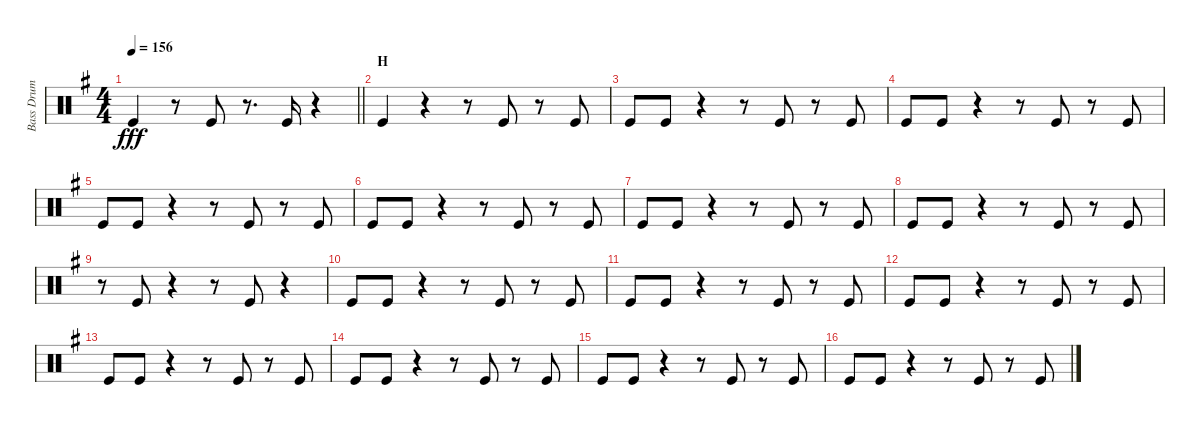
\track ("Bass Drum" "Bass Drum") {instrument percussion}
\staff {score}
\articulation defaults
\ts (4 4)
\tempo 156
\clef neutral
\barLineRight lightlight
\ks g "Kick (hit)".4{dy fff}
r.8 "Kick (hit)".8 r.8{d} "Kick (hit)".16 r.4 |
\section ("" "H")
"Kick (hit)".4 r.4 r.8 "Kick (hit)".8 r.8 "Kick (hit)".8 |
"Kick (hit)".8 "Kick (hit)".8 r.4 r.8 "Kick (hit)".8 r.8 "Kick (hit)".8 |
"Kick (hit)".8 "Kick (hit)".8 r.4 r.8 "Kick (hit)".8 r.8 "Kick (hit)".8 |
"Kick (hit)".8 "Kick (hit)".8 r.4 r.8 "Kick (hit)".8 r.8 "Kick (hit)".8 |
"Kick (hit)".8 "Kick (hit)".8 r.4 r.8 "Kick (hit)".8 r.8 "Kick (hit)".8 |
"Kick (hit)".8 "Kick (hit)".8 r.4 r.8 "Kick (hit)".8 r.8 "Kick (hit)".8 |
"Kick (hit)".8 "Kick (hit)".8 r.4 r.8 "Kick (hit)".8 r.8 "Kick (hit)".8 |
r.8 "Kick (hit)".8 r.4 r.8 "Kick (hit)".8 r.4 |
"Kick (hit)".8 "Kick (hit)".8 r.4 r.8 "Kick (hit)".8 r.8 "Kick (hit)".8 |
"Kick (hit)".8 "Kick (hit)".8 r.4 r.8 "Kick (hit)".8 r.8 "Kick (hit)".8 |
"Kick (hit)".8 "Kick (hit)".8 r.4 r.8 "Kick (hit)".8 r.8 "Kick (hit)".8 |
"Kick (hit)".8 "Kick (hit)".8 r.4 r.8 "Kick (hit)".8 r.8 "Kick (hit)".8 |
"Kick (hit)".8 "Kick (hit)".8 r.4 r.8 "Kick (hit)".8 r.8 "Kick (hit)".8 |
"Kick (hit)".8 "Kick (hit)".8 r.4 r.8 "Kick (hit)".8 r.8 "Kick (hit)".8 |
"Kick (hit)".8 "Kick (hit)".8 r.4 r.8 "Kick (hit)".8 r.8 "Kick (hit)".8
